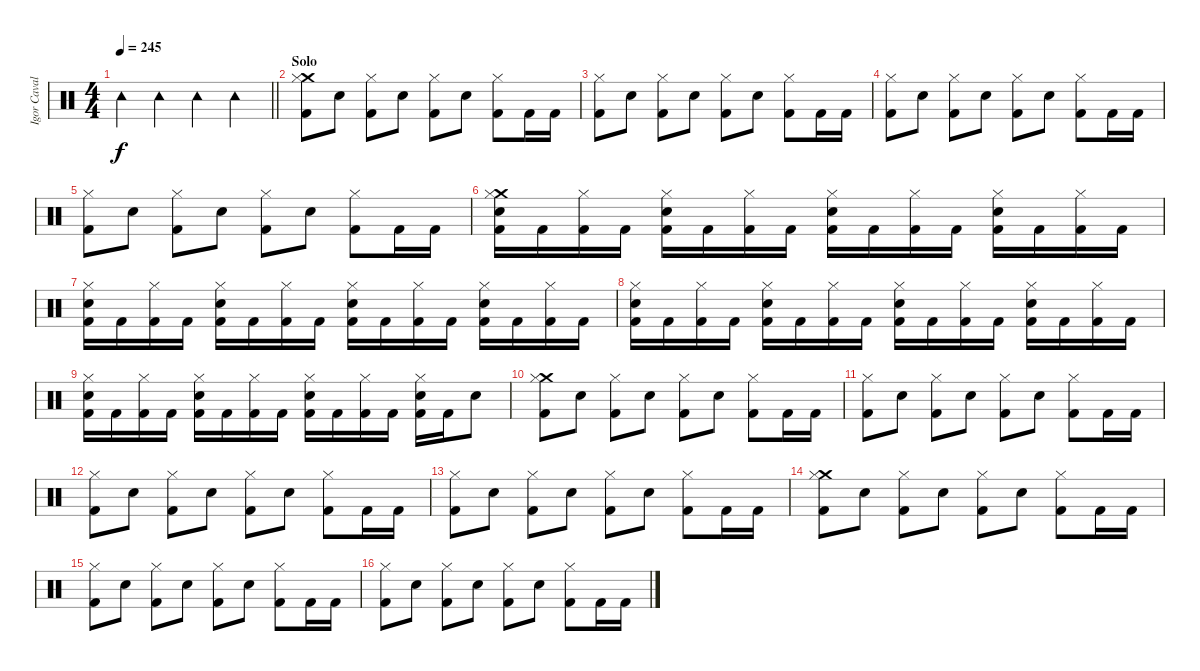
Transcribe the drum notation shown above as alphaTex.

\track ("Igor Cavalera" "Igor Caval") {instrument percussion}
\staff {score}
\articulation defaults
\ts (4 4)
\tempo 245
\clef neutral
\barLineRight lightlight
\ks c "Tambourine (hit)".4{dy f} "Tambourine (hit)".4 "Tambourine (hit)".4 "Tambourine (hit)".4
|
\section ("" "Solo")
("Crash medium (hit)" "Hi-Hat (closed)" "Kick (hit) 2").8 "Electric Snare (hit)".8 ("Hi-Hat (closed)" "Kick (hit) 2").8 "Electric Snare (hit)".8 ("Hi-Hat (closed)" "Kick (hit) 2").8 "Electric Snare (hit)".8 ("Hi-Hat (closed)" "Kick (hit) 2").8 "Kick (hit) 2".16 "Kick (hit) 2".16 |
("Hi-Hat (closed)" "Kick (hit) 2").8 "Electric Snare (hit)".8 ("Hi-Hat (closed)" "Kick (hit) 2").8 "Electric Snare (hit)".8 ("Hi-Hat (closed)" "Kick (hit) 2").8 "Electric Snare (hit)".8 ("Hi-Hat (closed)" "Kick (hit) 2").8 "Kick (hit) 2".16 "Kick (hit) 2".16 |
("Hi-Hat (closed)" "Kick (hit) 2").8 "Electric Snare (hit)".8 ("Hi-Hat (closed)" "Kick (hit) 2").8 "Electric Snare (hit)".8 ("Hi-Hat (closed)" "Kick (hit) 2").8 "Electric Snare (hit)".8 ("Hi-Hat (closed)" "Kick (hit) 2").8 "Kick (hit) 2".16 "Kick (hit) 2".16 |
("Hi-Hat (closed)" "Kick (hit) 2").8 "Electric Snare (hit)".8 ("Hi-Hat (closed)" "Kick (hit) 2").8 "Electric Snare (hit)".8 ("Hi-Hat (closed)" "Kick (hit) 2").8 "Electric Snare (hit)".8 ("Hi-Hat (closed)" "Kick (hit) 2").8 "Kick (hit) 2".16 "Kick (hit) 2".16 |
("Crash medium (hit)" "Hi-Hat (closed)" "Electric Snare (hit)" "Kick (hit) 2").16 "Kick (hit) 2".16 ("Hi-Hat (closed)" "Kick (hit) 2").16 "Kick (hit) 2".16 ("Hi-Hat (closed)" "Electric Snare (hit)" "Kick (hit) 2").16 "Kick (hit) 2".16 ("Hi-Hat (closed)" "Kick (hit) 2").16 "Kick (hit) 2".16 ("Hi-Hat (closed)" "Electric Snare (hit)" "Kick (hit) 2").16 "Kick (hit) 2".16 ("Hi-Hat (closed)" "Kick (hit) 2").16 "Kick (hit) 2".16 ("Hi-Hat (closed)" "Electric Snare (hit)" "Kick (hit) 2").16 "Kick (hit) 2".16 ("Hi-Hat (closed)" "Kick (hit) 2").16 "Kick (hit) 2".16 |
("Hi-Hat (closed)" "Electric Snare (hit)" "Kick (hit) 2").16 "Kick (hit) 2".16 ("Hi-Hat (closed)" "Kick (hit) 2").16 "Kick (hit) 2".16 ("Hi-Hat (closed)" "Electric Snare (hit)" "Kick (hit) 2").16 "Kick (hit) 2".16 ("Hi-Hat (closed)" "Kick (hit) 2").16 "Kick (hit) 2".16 ("Hi-Hat (closed)" "Electric Snare (hit)" "Kick (hit) 2").16 "Kick (hit) 2".16 ("Hi-Hat (closed)" "Kick (hit) 2").16 "Kick (hit) 2".16 ("Hi-Hat (closed)" "Electric Snare (hit)" "Kick (hit) 2").16 "Kick (hit) 2".16 ("Hi-Hat (closed)" "Kick (hit) 2").16 "Kick (hit) 2".16 |
("Hi-Hat (closed)" "Electric Snare (hit)" "Kick (hit) 2").16 "Kick (hit) 2".16 ("Hi-Hat (closed)" "Kick (hit) 2").16 "Kick (hit) 2".16 ("Hi-Hat (closed)" "Electric Snare (hit)" "Kick (hit) 2").16 "Kick (hit) 2".16 ("Hi-Hat (closed)" "Kick (hit) 2").16 "Kick (hit) 2".16 ("Hi-Hat (closed)" "Electric Snare (hit)" "Kick (hit) 2").16 "Kick (hit) 2".16 ("Hi-Hat (closed)" "Kick (hit) 2").16 "Kick (hit) 2".16 ("Hi-Hat (closed)" "Electric Snare (hit)" "Kick (hit) 2").16 "Kick (hit) 2".16 ("Hi-Hat (closed)" "Kick (hit) 2").16 "Kick (hit) 2".16 |
("Hi-Hat (closed)" "Electric Snare (hit)" "Kick (hit) 2").16 "Kick (hit) 2".16 ("Hi-Hat (closed)" "Kick (hit) 2").16 "Kick (hit) 2".16 ("Hi-Hat (closed)" "Electric Snare (hit)" "Kick (hit) 2").16 "Kick (hit) 2".16 ("Hi-Hat (closed)" "Kick (hit) 2").16 "Kick (hit) 2".16 ("Hi-Hat (closed)" "Electric Snare (hit)" "Kick (hit) 2").16 "Kick (hit) 2".16 ("Hi-Hat (closed)" "Kick (hit) 2").16 "Kick (hit) 2".16 ("Hi-Hat (closed)" "Electric Snare (hit)" "Kick (hit) 2").16 "Kick (hit) 2".16 "Electric Snare (hit)".8 |
("Crash medium (hit)" "Hi-Hat (closed)" "Kick (hit) 2").8 "Electric Snare (hit)".8 ("Hi-Hat (closed)" "Kick (hit) 2").8 "Electric Snare (hit)".8 ("Hi-Hat (closed)" "Kick (hit) 2").8 "Electric Snare (hit)".8 ("Hi-Hat (closed)" "Kick (hit) 2").8 "Kick (hit) 2".16 "Kick (hit) 2".16 |
("Hi-Hat (closed)" "Kick (hit) 2").8 "Electric Snare (hit)".8 ("Hi-Hat (closed)" "Kick (hit) 2").8 "Electric Snare (hit)".8 ("Hi-Hat (closed)" "Kick (hit) 2").8 "Electric Snare (hit)".8 ("Hi-Hat (closed)" "Kick (hit) 2").8 "Kick (hit) 2".16 "Kick (hit) 2".16 |
("Hi-Hat (closed)" "Kick (hit) 2").8 "Electric Snare (hit)".8 ("Hi-Hat (closed)" "Kick (hit) 2").8 "Electric Snare (hit)".8 ("Hi-Hat (closed)" "Kick (hit) 2").8 "Electric Snare (hit)".8 ("Hi-Hat (closed)" "Kick (hit) 2").8 "Kick (hit) 2".16 "Kick (hit) 2".16 |
("Hi-Hat (closed)" "Kick (hit) 2").8 "Electric Snare (hit)".8 ("Hi-Hat (closed)" "Kick (hit) 2").8 "Electric Snare (hit)".8 ("Hi-Hat (closed)" "Kick (hit) 2").8 "Electric Snare (hit)".8 ("Hi-Hat (closed)" "Kick (hit) 2").8 "Kick (hit) 2".16 "Kick (hit) 2".16 |
("Crash medium (hit)" "Hi-Hat (closed)" "Kick (hit) 2").8 "Electric Snare (hit)".8 ("Hi-Hat (closed)" "Kick (hit) 2").8 "Electric Snare (hit)".8 ("Hi-Hat (closed)" "Kick (hit) 2").8 "Electric Snare (hit)".8 ("Hi-Hat (closed)" "Kick (hit) 2").8 "Kick (hit) 2".16 "Kick (hit) 2".16 |
("Hi-Hat (closed)" "Kick (hit) 2").8 "Electric Snare (hit)".8 ("Hi-Hat (closed)" "Kick (hit) 2").8 "Electric Snare (hit)".8 ("Hi-Hat (closed)" "Kick (hit) 2").8 "Electric Snare (hit)".8 ("Hi-Hat (closed)" "Kick (hit) 2").8 "Kick (hit) 2".16 "Kick (hit) 2".16 |
("Hi-Hat (closed)" "Kick (hit) 2").8 "Electric Snare (hit)".8 ("Hi-Hat (closed)" "Kick (hit) 2").8 "Electric Snare (hit)".8 ("Hi-Hat (closed)" "Kick (hit) 2").8 "Electric Snare (hit)".8 ("Hi-Hat (closed)" "Kick (hit) 2").8 "Kick (hit) 2".16 "Kick (hit) 2".16
